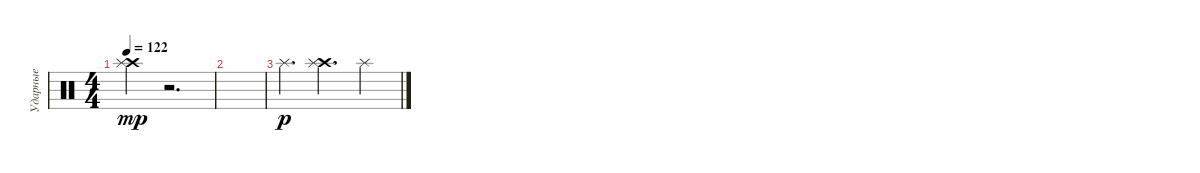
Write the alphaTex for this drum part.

\track ("Ударные" "Ударные") {instrument percussion}
\staff {score}
\articulation defaults
\ts (4 4)
\tempo 122
\clef neutral
\ks c
("Crash high (hit)" "Splash (hit)").4{dy mp} r.2{d} |
|
"Splash (hit)".4{d dy p} ("Crash high (hit)" "Splash (hit)").4{d} "Splash (hit)".4
